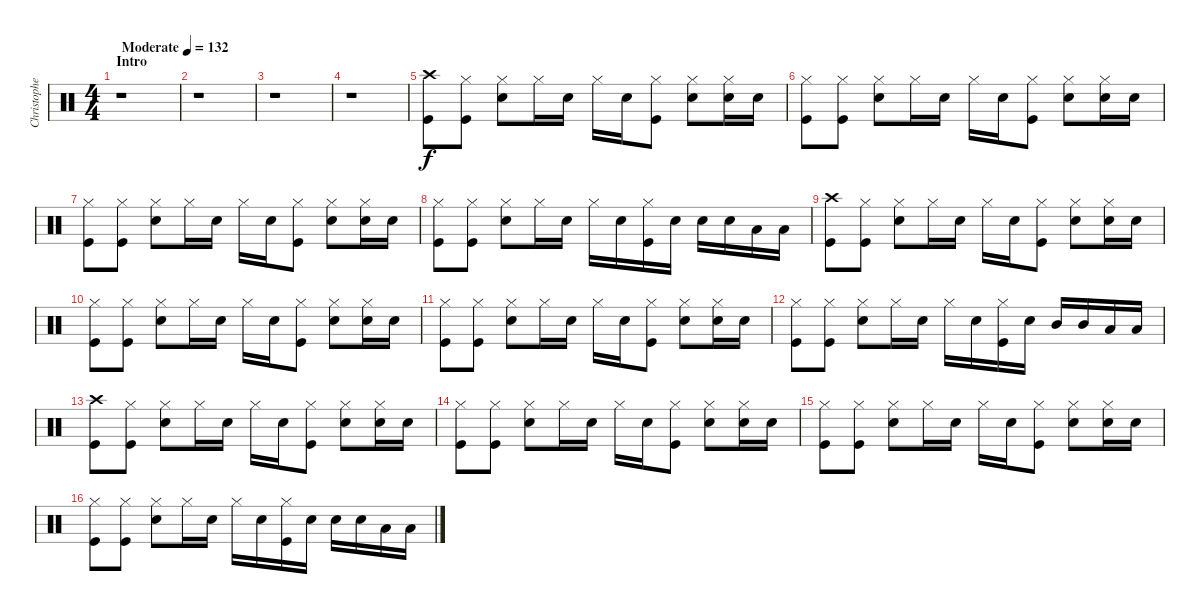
\track ("Christopher - Drums" "Christophe") {instrument percussion}
\staff {score}
\articulation defaults
\ts (4 4)
\section ("" "Intro")
\tempo (132 "Moderate")
\clef neutral
\ks c
r.1{dy f} |
r.1 |
r.1 |
r.1 |
("Crash high (hit)" "Kick (hit)").8 ("Hi-Hat (closed)" "Kick (hit)").8 ("Hi-Hat (closed)" "Snare (hit) 2").8 "Hi-Hat (closed)".16 "Snare (hit) 2".16 "Hi-Hat (closed)".16 "Snare (hit) 2".16 ("Hi-Hat (closed)" "Kick (hit)").8 ("Hi-Hat (closed)" "Snare (hit) 2").8 ("Hi-Hat (closed)" "Snare (hit) 2").16 "Snare (hit) 2".16 |
("Hi-Hat (closed)" "Kick (hit)").8 ("Hi-Hat (closed)" "Kick (hit)").8 ("Hi-Hat (closed)" "Snare (hit) 2").8 "Hi-Hat (closed)".16 "Snare (hit) 2".16 "Hi-Hat (closed)".16 "Snare (hit) 2".16 ("Hi-Hat (closed)" "Kick (hit)").8 ("Hi-Hat (closed)" "Snare (hit) 2").8 ("Hi-Hat (closed)" "Snare (hit) 2").16 "Snare (hit) 2".16 |
("Hi-Hat (closed)" "Kick (hit)").8 ("Hi-Hat (closed)" "Kick (hit)").8 ("Hi-Hat (closed)" "Snare (hit) 2").8 "Hi-Hat (closed)".16 "Snare (hit) 2".16 "Hi-Hat (closed)".16 "Snare (hit) 2".16 ("Hi-Hat (closed)" "Kick (hit)").8 ("Hi-Hat (closed)" "Snare (hit) 2").8 ("Hi-Hat (closed)" "Snare (hit) 2").16 "Snare (hit) 2".16 |
("Hi-Hat (closed)" "Kick (hit)").8 ("Hi-Hat (closed)" "Kick (hit)").8 ("Hi-Hat (closed)" "Snare (hit) 2").8 "Hi-Hat (closed)".16 "Snare (hit) 2".16 "Hi-Hat (closed)".16 "Snare (hit) 2".16 ("Hi-Hat (closed)" "Kick (hit)").16 "Snare (hit) 2".16 "Snare (hit) 2".16 "Snare (hit) 2".16 "Low Tom (hit)".16 "Low Tom (hit)".16 |
("Crash high (hit)" "Kick (hit)").8 ("Hi-Hat (closed)" "Kick (hit)").8 ("Hi-Hat (closed)" "Snare (hit) 2").8 "Hi-Hat (closed)".16 "Snare (hit) 2".16 "Hi-Hat (closed)".16 "Snare (hit) 2".16 ("Hi-Hat (closed)" "Kick (hit)").8 ("Hi-Hat (closed)" "Snare (hit) 2").8 ("Hi-Hat (closed)" "Snare (hit) 2").16 "Snare (hit) 2".16 |
("Hi-Hat (closed)" "Kick (hit)").8 ("Hi-Hat (closed)" "Kick (hit)").8 ("Hi-Hat (closed)" "Snare (hit) 2").8 "Hi-Hat (closed)".16 "Snare (hit) 2".16 "Hi-Hat (closed)".16 "Snare (hit) 2".16 ("Hi-Hat (closed)" "Kick (hit)").8 ("Hi-Hat (closed)" "Snare (hit) 2").8 ("Hi-Hat (closed)" "Snare (hit) 2").16 "Snare (hit) 2".16 |
("Hi-Hat (closed)" "Kick (hit)").8 ("Hi-Hat (closed)" "Kick (hit)").8 ("Hi-Hat (closed)" "Snare (hit) 2").8 "Hi-Hat (closed)".16 "Snare (hit) 2".16 "Hi-Hat (closed)".16 "Snare (hit) 2".16 ("Hi-Hat (closed)" "Kick (hit)").8 ("Hi-Hat (closed)" "Snare (hit) 2").8 ("Hi-Hat (closed)" "Snare (hit) 2").16 "Snare (hit) 2".16 |
("Hi-Hat (closed)" "Kick (hit)").8 ("Hi-Hat (closed)" "Kick (hit)").8 ("Hi-Hat (closed)" "Snare (hit) 2").8 "Hi-Hat (closed)".16 "Snare (hit) 2".16 "Hi-Hat (closed)".16 "Snare (hit) 2".16 ("Hi-Hat (closed)" "Kick (hit)").16 "Snare (hit) 2".16 "Mid Tom (hit)".16 "Mid Tom (hit)".16 "Low Tom (hit)".16 "Low Tom (hit)".16 |
("Crash high (hit)" "Kick (hit)").8 ("Hi-Hat (closed)" "Kick (hit)").8 ("Hi-Hat (closed)" "Snare (hit) 2").8 "Hi-Hat (closed)".16 "Snare (hit) 2".16 "Hi-Hat (closed)".16 "Snare (hit) 2".16 ("Hi-Hat (closed)" "Kick (hit)").8 ("Hi-Hat (closed)" "Snare (hit) 2").8 ("Hi-Hat (closed)" "Snare (hit) 2").16 "Snare (hit) 2".16 |
("Hi-Hat (closed)" "Kick (hit)").8 ("Hi-Hat (closed)" "Kick (hit)").8 ("Hi-Hat (closed)" "Snare (hit) 2").8 "Hi-Hat (closed)".16 "Snare (hit) 2".16 "Hi-Hat (closed)".16 "Snare (hit) 2".16 ("Hi-Hat (closed)" "Kick (hit)").8 ("Hi-Hat (closed)" "Snare (hit) 2").8 ("Hi-Hat (closed)" "Snare (hit) 2").16 "Snare (hit) 2".16 |
("Hi-Hat (closed)" "Kick (hit)").8 ("Hi-Hat (closed)" "Kick (hit)").8 ("Hi-Hat (closed)" "Snare (hit) 2").8 "Hi-Hat (closed)".16 "Snare (hit) 2".16 "Hi-Hat (closed)".16 "Snare (hit) 2".16 ("Hi-Hat (closed)" "Kick (hit)").8 ("Hi-Hat (closed)" "Snare (hit) 2").8 ("Hi-Hat (closed)" "Snare (hit) 2").16 "Snare (hit) 2".16 |
("Hi-Hat (closed)" "Kick (hit)").8 ("Hi-Hat (closed)" "Kick (hit)").8 ("Hi-Hat (closed)" "Snare (hit) 2").8 "Hi-Hat (closed)".16 "Snare (hit) 2".16 "Hi-Hat (closed)".16 "Snare (hit) 2".16 ("Hi-Hat (closed)" "Kick (hit)").16 "Snare (hit) 2".16 "Snare (hit) 2".16 "Snare (hit) 2".16 "Low Tom (hit)".16 "Low Tom (hit)".16
